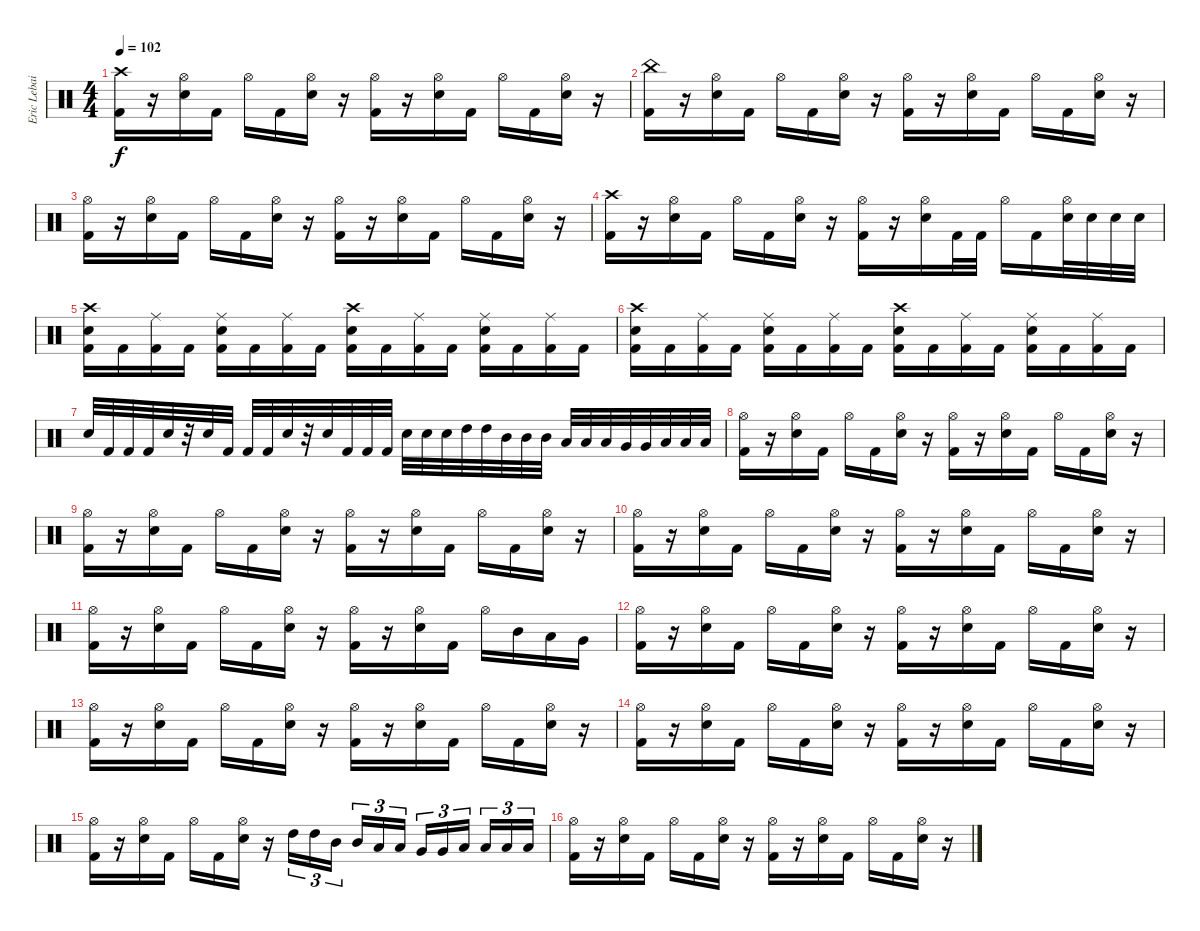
\track ("Eric Lebailly" "Eric Lebai") {instrument percussion}
\staff {score}
\articulation defaults
\ts (4 4)
\tempo 102
\clef neutral
\ks c
("Crash high (hit)" "Kick (hit) 2").16{dy f} r.16 ("Hi-Hat (open)" "Snare (hit) 2").16 "Kick (hit) 2".16 "Hi-Hat (open)".16 "Kick (hit) 2".16 ("Hi-Hat (open)" "Snare (hit) 2").16 r.16 ("Hi-Hat (open)" "Kick (hit) 2").16 r.16 ("Hi-Hat (open)" "Snare (hit) 2").16 "Kick (hit) 2".16 "Hi-Hat (open)".16 "Kick (hit) 2".16 ("Hi-Hat (open)" "Snare (hit) 2").16 r.16 |
("China (hit)" "Kick (hit) 2").16 r.16 ("Hi-Hat (open)" "Snare (hit) 2").16 "Kick (hit) 2".16 "Hi-Hat (open)".16 "Kick (hit) 2".16 ("Hi-Hat (open)" "Snare (hit) 2").16 r.16 ("Hi-Hat (open)" "Kick (hit) 2").16 r.16 ("Hi-Hat (open)" "Snare (hit) 2").16 "Kick (hit) 2".16 "Hi-Hat (open)".16 "Kick (hit) 2".16 ("Hi-Hat (open)" "Snare (hit) 2").16 r.16 |
("Hi-Hat (open)" "Kick (hit) 2").16 r.16 ("Hi-Hat (open)" "Snare (hit) 2").16 "Kick (hit) 2".16 "Hi-Hat (open)".16 "Kick (hit) 2".16 ("Hi-Hat (open)" "Snare (hit) 2").16 r.16 ("Hi-Hat (open)" "Kick (hit) 2").16 r.16 ("Hi-Hat (open)" "Snare (hit) 2").16 "Kick (hit) 2".16 "Hi-Hat (open)".16 "Kick (hit) 2".16 ("Hi-Hat (open)" "Snare (hit) 2").16 r.16 |
("Crash high (hit)" "Kick (hit) 2").16 r.16 ("Hi-Hat (open)" "Snare (hit) 2").16 "Kick (hit) 2".16 "Hi-Hat (open)".16 "Kick (hit) 2".16 ("Hi-Hat (open)" "Snare (hit) 2").16 r.16 ("Hi-Hat (open)" "Kick (hit) 2").16 r.16 ("Hi-Hat (open)" "Snare (hit) 2").16 "Kick (hit) 2".32 "Kick (hit) 2".32 "Hi-Hat (open)".16 "Kick (hit) 2".16 ("Hi-Hat (open)" "Snare (hit) 2").32 "Snare (hit) 2".32 "Snare (hit) 2".32 "Snare (hit) 2".32 |
("Crash high (hit)" "Snare (hit) 2" "Kick (hit) 2").16 "Kick (hit) 2".16 ("Ride (middle)" "Kick (hit) 2").16 "Kick (hit) 2".16 ("Ride (middle)" "Snare (hit) 2" "Kick (hit) 2").16 "Kick (hit) 2".16 ("Ride (middle)" "Kick (hit) 2").16 "Kick (hit) 2".16 ("Crash high (hit)" "Snare (hit) 2" "Kick (hit) 2").16 "Kick (hit) 2".16 ("Ride (middle)" "Kick (hit) 2").16 "Kick (hit) 2".16 ("Ride (middle)" "Snare (hit) 2" "Kick (hit) 2").16 "Kick (hit) 2".16 ("Ride (middle)" "Kick (hit) 2").16 "Kick (hit) 2".16 |
("Crash high (hit)" "Snare (hit) 2" "Kick (hit) 2").16 "Kick (hit) 2".16 ("Ride (middle)" "Kick (hit) 2").16 "Kick (hit) 2".16 ("Ride (middle)" "Snare (hit) 2" "Kick (hit) 2").16 "Kick (hit) 2".16 ("Ride (middle)" "Kick (hit) 2").16 "Kick (hit) 2".16 ("Crash high (hit)" "Snare (hit) 2" "Kick (hit) 2").16 "Kick (hit) 2".16 ("Ride (middle)" "Kick (hit) 2").16 "Kick (hit) 2".16 ("Ride (middle)" "Snare (hit) 2" "Kick (hit) 2").16 "Kick (hit) 2".16 ("Ride (middle)" "Kick (hit) 2").16 "Kick (hit) 2".16 |
"Snare (hit) 2".32 "Kick (hit) 2".32 "Kick (hit) 2".32 "Kick (hit) 2".32 "Snare (hit) 2".32 r.32 "Snare (hit) 2".32 "Kick (hit) 2".32 "Kick (hit) 2".32 "Kick (hit) 2".32 "Snare (hit) 2".32 r.32 "Snare (hit) 2".32 "Kick (hit) 2".32 "Kick (hit) 2".32 "Kick (hit) 2".32 "Snare (hit) 2".32 "Snare (hit) 2".32 "Snare (hit) 2".32 "High Tom (hit)".32 "High Tom (hit)".32 "Mid Tom (hit)".32 "Mid Tom (hit)".32 "Mid Tom (hit)".32 "Low Tom (hit)".32 "Low Tom (hit)".32 "Low Tom (hit)".32 "Very Low Tom (hit)".32 "Very Low Tom (hit)".32 "Low Floor Tom (hit)".32 "Low Floor Tom (hit)".32 "Low Floor Tom (hit)".32 |
("Hi-Hat (open)" "Kick (hit) 2").16 r.16 ("Hi-Hat (open)" "Snare (hit) 2").16 "Kick (hit) 2".16 "Hi-Hat (open)".16 "Kick (hit) 2".16 ("Hi-Hat (open)" "Snare (hit) 2").16 r.16 ("Hi-Hat (open)" "Kick (hit) 2").16 r.16 ("Hi-Hat (open)" "Snare (hit) 2").16 "Kick (hit) 2".16 "Hi-Hat (open)".16 "Kick (hit) 2".16 ("Hi-Hat (open)" "Snare (hit) 2").16 r.16 |
("Hi-Hat (open)" "Kick (hit) 2").16 r.16 ("Hi-Hat (open)" "Snare (hit) 2").16 "Kick (hit) 2".16 "Hi-Hat (open)".16 "Kick (hit) 2".16 ("Hi-Hat (open)" "Snare (hit) 2").16 r.16 ("Hi-Hat (open)" "Kick (hit) 2").16 r.16 ("Hi-Hat (open)" "Snare (hit) 2").16 "Kick (hit) 2".16 "Hi-Hat (open)".16 "Kick (hit) 2".16 ("Hi-Hat (open)" "Snare (hit) 2").16 r.16 |
("Hi-Hat (open)" "Kick (hit) 2").16 r.16 ("Hi-Hat (open)" "Snare (hit) 2").16 "Kick (hit) 2".16 "Hi-Hat (open)".16 "Kick (hit) 2".16 ("Hi-Hat (open)" "Snare (hit) 2").16 r.16 ("Hi-Hat (open)" "Kick (hit) 2").16 r.16 ("Hi-Hat (open)" "Snare (hit) 2").16 "Kick (hit) 2".16 "Hi-Hat (open)".16 "Kick (hit) 2".16 ("Hi-Hat (open)" "Snare (hit) 2").16 r.16 |
("Hi-Hat (open)" "Kick (hit) 2").16 r.16 ("Hi-Hat (open)" "Snare (hit) 2").16 "Kick (hit) 2".16 "Hi-Hat (open)".16 "Kick (hit) 2".16 ("Hi-Hat (open)" "Snare (hit) 2").16 r.16 ("Hi-Hat (open)" "Kick (hit) 2").16 r.16 ("Hi-Hat (open)" "Snare (hit) 2").16 "Kick (hit) 2".16 "Hi-Hat (open)".16 "Mid Tom (hit)".16 "Low Tom (hit)".16 "Very Low Tom (hit)".16 |
("Hi-Hat (open)" "Kick (hit) 2").16 r.16 ("Hi-Hat (open)" "Snare (hit) 2").16 "Kick (hit) 2".16 "Hi-Hat (open)".16 "Kick (hit) 2".16 ("Hi-Hat (open)" "Snare (hit) 2").16 r.16 ("Hi-Hat (open)" "Kick (hit) 2").16 r.16 ("Hi-Hat (open)" "Snare (hit) 2").16 "Kick (hit) 2".16 "Hi-Hat (open)".16 "Kick (hit) 2".16 ("Hi-Hat (open)" "Snare (hit) 2").16 r.16 |
("Hi-Hat (open)" "Kick (hit) 2").16 r.16 ("Hi-Hat (open)" "Snare (hit) 2").16 "Kick (hit) 2".16 "Hi-Hat (open)".16 "Kick (hit) 2".16 ("Hi-Hat (open)" "Snare (hit) 2").16 r.16 ("Hi-Hat (open)" "Kick (hit) 2").16 r.16 ("Hi-Hat (open)" "Snare (hit) 2").16 "Kick (hit) 2".16 "Hi-Hat (open)".16 "Kick (hit) 2".16 ("Hi-Hat (open)" "Snare (hit) 2").16 r.16 |
("Hi-Hat (open)" "Kick (hit) 2").16 r.16 ("Hi-Hat (open)" "Snare (hit) 2").16 "Kick (hit) 2".16 "Hi-Hat (open)".16 "Kick (hit) 2".16 ("Hi-Hat (open)" "Snare (hit) 2").16 r.16 ("Hi-Hat (open)" "Kick (hit) 2").16 r.16 ("Hi-Hat (open)" "Snare (hit) 2").16 "Kick (hit) 2".16 "Hi-Hat (open)".16 "Kick (hit) 2".16 ("Hi-Hat (open)" "Snare (hit) 2").16 r.16 |
("Hi-Hat (open)" "Kick (hit) 2").16 r.16 ("Hi-Hat (open)" "Snare (hit) 2").16 "Kick (hit) 2".16 "Hi-Hat (open)".16 "Kick (hit) 2".16 ("Hi-Hat (open)" "Snare (hit) 2").16 r.16 "High Tom (hit)".16{tu (3 2)} "High Tom (hit)".16{tu (3 2)} "Mid Tom (hit)".16{tu (3 2) beam splitsecondary} "Mid Tom (hit)".16{tu (3 2)} "Low Tom (hit)".16{tu (3 2)} "Low Tom (hit)".16{tu (3 2)} "Very Low Tom (hit)".16{tu (3 2)} "Very Low Tom (hit)".16{tu (3 2)} "Low Floor Tom (hit)".16{tu (3 2) beam splitsecondary} "Low Floor Tom (hit)".16{tu (3 2)} "Low Floor Tom (hit)".16{tu (3 2)} "Low Floor Tom (hit)".16{tu (3 2)} |
("Hi-Hat (open)" "Kick (hit) 2").16 r.16 ("Hi-Hat (open)" "Snare (hit) 2").16 "Kick (hit) 2".16 "Hi-Hat (open)".16 "Kick (hit) 2".16 ("Hi-Hat (open)" "Snare (hit) 2").16 r.16 ("Hi-Hat (open)" "Kick (hit) 2").16 r.16 ("Hi-Hat (open)" "Snare (hit) 2").16 "Kick (hit) 2".16 "Hi-Hat (open)".16 "Kick (hit) 2".16 ("Hi-Hat (open)" "Snare (hit) 2").16 r.16
